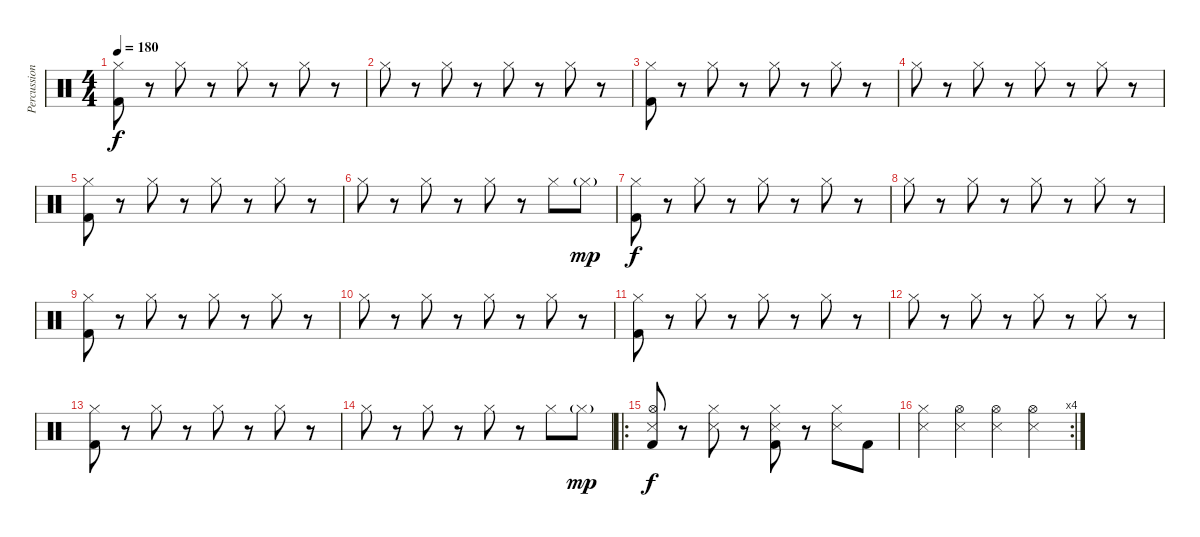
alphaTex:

\track ("Percussion" "Percussion") {instrument percussion}
\staff {score}
\articulation defaults
\ts (4 4)
\tempo 180
\clef neutral
\ks c
("Hi-Hat (closed)" "Kick (hit) 2").8{dy f} r.8 "Hi-Hat (closed)".8 r.8 "Hi-Hat (closed)".8 r.8 "Hi-Hat (closed)".8 r.8 |
"Hi-Hat (closed)".8 r.8 "Hi-Hat (closed)".8 r.8 "Hi-Hat (closed)".8 r.8 "Hi-Hat (closed)".8 r.8 |
("Hi-Hat (closed)" "Kick (hit) 2").8 r.8 "Hi-Hat (closed)".8 r.8 "Hi-Hat (closed)".8 r.8 "Hi-Hat (closed)".8 r.8 |
"Hi-Hat (closed)".8 r.8 "Hi-Hat (closed)".8 r.8 "Hi-Hat (closed)".8 r.8 "Hi-Hat (closed)".8 r.8 |
("Hi-Hat (closed)" "Kick (hit) 2").8 r.8 "Hi-Hat (closed)".8 r.8 "Hi-Hat (closed)".8 r.8 "Hi-Hat (closed)".8 r.8 |
"Hi-Hat (closed)".8 r.8 "Hi-Hat (closed)".8 r.8 "Hi-Hat (closed)".8 r.8 "Hi-Hat (closed)".8 "Hi-Hat (closed)"{g}.8{dy mp} |
("Hi-Hat (closed)" "Kick (hit) 2").8{dy f} r.8 "Hi-Hat (closed)".8 r.8 "Hi-Hat (closed)".8 r.8 "Hi-Hat (closed)".8 r.8 |
"Hi-Hat (closed)".8 r.8 "Hi-Hat (closed)".8 r.8 "Hi-Hat (closed)".8 r.8 "Hi-Hat (closed)".8 r.8 |
("Hi-Hat (closed)" "Kick (hit) 2").8 r.8 "Hi-Hat (closed)".8 r.8 "Hi-Hat (closed)".8 r.8 "Hi-Hat (closed)".8 r.8 |
"Hi-Hat (closed)".8 r.8 "Hi-Hat (closed)".8 r.8 "Hi-Hat (closed)".8 r.8 "Hi-Hat (closed)".8 r.8 |
("Hi-Hat (closed)" "Kick (hit) 2").8 r.8 "Hi-Hat (closed)".8 r.8 "Hi-Hat (closed)".8 r.8 "Hi-Hat (closed)".8 r.8 |
"Hi-Hat (closed)".8 r.8 "Hi-Hat (closed)".8 r.8 "Hi-Hat (closed)".8 r.8 "Hi-Hat (closed)".8 r.8 |
("Hi-Hat (closed)" "Kick (hit) 2").8 r.8 "Hi-Hat (closed)".8 r.8 "Hi-Hat (closed)".8 r.8 "Hi-Hat (closed)".8 r.8 |
"Hi-Hat (closed)".8 r.8 "Hi-Hat (closed)".8 r.8 "Hi-Hat (closed)".8 r.8 "Hi-Hat (closed)".8 "Hi-Hat (closed)"{g}.8{dy mp} |
\ro
("Hi-Hat (open)" "Snare (side stick) 3" "Kick (hit) 2").8{dy f} r.8 ("Hi-Hat (closed)" "Snare (side stick) 3").8 r.8 ("Hi-Hat (closed)" "Snare (side stick) 3" "Kick (hit) 2").8 r.8 ("Hi-Hat (closed)" "Snare (side stick) 3").8 "Kick (hit) 2".8 |
\rc 4
("Hi-Hat (closed)" "Snare (side stick) 3").4 ("Hi-Hat (open)" "Snare (side stick) 3").4 ("Hi-Hat (open)" "Snare (side stick) 3").4 ("Hi-Hat (open)" "Snare (side stick) 3").4
